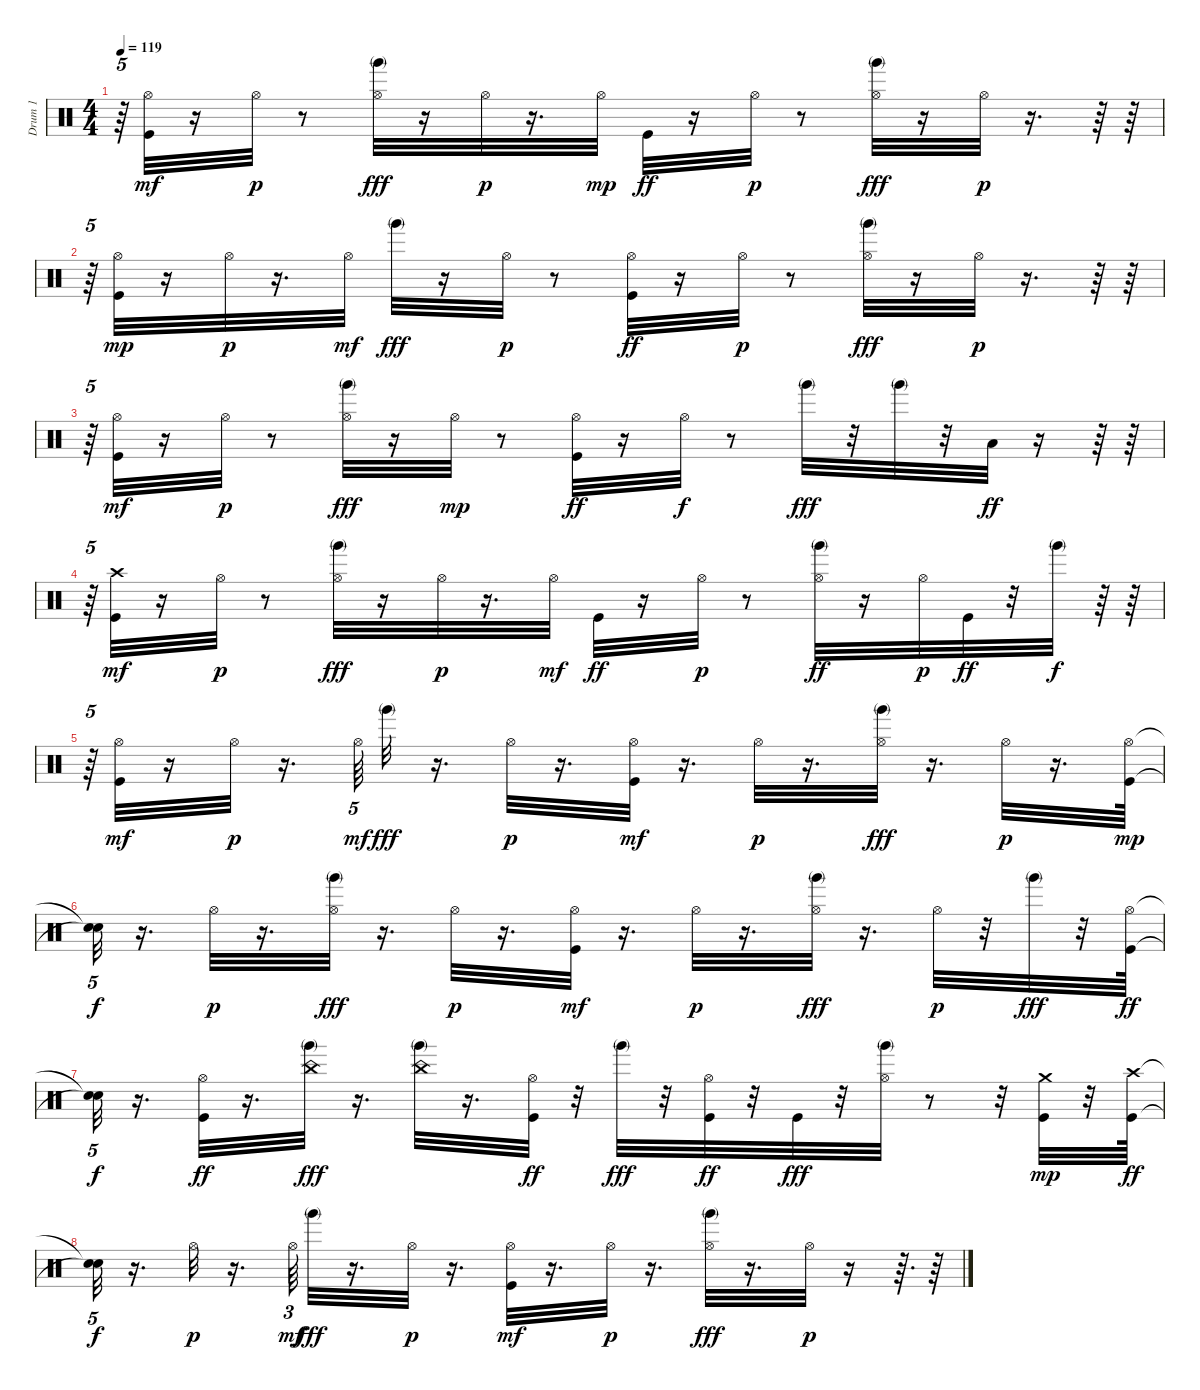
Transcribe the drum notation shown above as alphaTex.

\track ("Drum 1                          " "Drum 1    ") {instrument percussion}
\staff {score}
\articulation defaults
\ts (4 4)
\tempo 119
\clef neutral
\ks c
r.64{tu (5 4) dy p} ("Kick (hit)" "Hi-Hat (open)").32{dy mf} r.16 "Hi-Hat (open)".32{dy p} r.8 ("Hi-Hat (open)" "Hand (mute) 2").32{dy fff} r.16 "Hi-Hat (open)".32{dy p} r.16{d} "Hi-Hat (open)".32{dy mp} "Kick (hit)".32{dy ff} r.16 "Hi-Hat (open)".32{dy p} r.8 ("Hi-Hat (open)" "Hand (mute) 2").32{dy fff} r.16 "Hi-Hat (open)".32{dy p} r.16{d} r.64 r.64 |
r.64{tu (5 4)} ("Kick (hit)" "Hi-Hat (open)").32{dy mp} r.16 "Hi-Hat (open)".32{dy p} r.16{d} "Hi-Hat (open)".32{dy mf} "Hand (mute) 2".32{dy fff} r.16 "Hi-Hat (open)".32{dy p} r.8 ("Hi-Hat (open)" "Kick (hit)").32{dy ff} r.16 "Hi-Hat (open)".32{dy p} r.8 ("Hi-Hat (open)" "Hand (mute) 2").32{dy fff} r.16 "Hi-Hat (open)".32{dy p} r.16{d} r.64 r.64 |
r.64{tu (5 4)} ("Kick (hit)" "Hi-Hat (open)").32{dy mf} r.16 "Hi-Hat (open)".32{dy p} r.8 ("Hi-Hat (open)" "Hand (mute) 2").32{dy fff} r.16 "Hi-Hat (open)".32{dy mp} r.8 ("Hi-Hat (open)" "Kick (hit)").32{dy ff} r.16 "Hi-Hat (open)".32{dy f} r.8 "Hand (mute) 2".32{dy fff} r.32 "Hand (mute) 2".32 r.32 "Low Floor Tom (hit)".32{dy ff} r.16 r.64 r.64 |
r.64{tu (5 4)} ("Kick (hit)" "Crash high (hit)").32{dy mf} r.16 "Hi-Hat (open)".32{dy p} r.8 ("Hi-Hat (open)" "Hand (mute) 2").32{dy fff} r.16 "Hi-Hat (open)".32{dy p} r.16{d} "Hi-Hat (open)".32{dy mf} "Kick (hit)".32{dy ff} r.16 "Hi-Hat (open)".32{dy p} r.8 ("Hi-Hat (open)" "Hand (mute) 2").32{dy ff} r.16 "Hi-Hat (open)".32{dy p} "Kick (hit)".32{dy ff} r.32 "Hand (mute) 2".32{dy f} r.64 r.64 |
r.64{tu (5 4)} ("Kick (hit)" "Hi-Hat (open)").32{dy mf} r.16 "Hi-Hat (open)".32{dy p} r.16{d} "Hi-Hat (open)".64{tu (5 4) dy mf} "Hand (mute) 2".32{dy fff} r.16{d} "Hi-Hat (open)".32{dy p} r.16{d} ("Kick (hit)" "Hi-Hat (open)").32{dy mf} r.16{d} "Hi-Hat (open)".32{dy p} r.16{d} ("Hi-Hat (open)" "Hand (mute) 2").32{dy fff} r.16{d} "Hi-Hat (open)".32{dy p} r.16{d} ("Kick (hit)" "Hi-Hat (open)").64{dy mp} |
("Snare (hit)"{t} "Snare (hit)"{t}).32{tu (5 4) dy f} r.16{d} "Hi-Hat (open)".32{dy p} r.16{d} ("Hi-Hat (open)" "Hand (mute) 2").32{dy fff} r.16{d} "Hi-Hat (open)".32{dy p} r.16{d} ("Kick (hit)" "Hi-Hat (open)").32{dy mf} r.16{d} "Hi-Hat (open)".32{dy p} r.16{d} ("Hi-Hat (open)" "Hand (mute) 2").32{dy fff} r.16{d} "Hi-Hat (open)".32{dy p} r.32 "Hand (mute) 2".32{dy fff} r.32 ("Hi-Hat (open)" "Kick (hit)").64{dy ff} |
("Snare (hit)"{t} "Snare (hit)"{t}).32{tu (5 4) dy f} r.16{d} ("Hi-Hat (open)" "Kick (hit)").32{dy ff} r.16{d} ("China (hit)" "Hand (mute) 2").32{dy fff} r.16{d} ("China (hit)" "Hand (mute) 2").32 r.16{d} ("Hi-Hat (open)" "Kick (hit)").32{dy ff} r.32 "Hand (mute) 2".32{dy fff} r.32 ("Hi-Hat (open)" "Kick (hit)").32{dy ff} r.32 "Kick (hit)".32{dy fff} r.32 ("Hi-Hat (open)" "Hand (mute) 2").32 r.8 r.32 ("Crash medium (hit)" "Kick (hit)").32{dy mp} r.32 ("Crash high (hit)" "Kick (hit)").64{dy ff} |
("Snare (hit)"{t} "Snare (hit)"{t}).32{tu (5 4) dy f} r.16{d} "Hi-Hat (open)".32{dy p} r.16{d} "Hi-Hat (open)".64{tu (3 2) dy mf} "Hand (mute) 2".32{dy fff} r.16{d} "Hi-Hat (open)".32{dy p} r.16{d} ("Kick (hit)" "Hi-Hat (open)").32{dy mf} r.16{d} "Hi-Hat (open)".32{dy p} r.16{d} ("Hi-Hat (open)" "Hand (mute) 2").32{dy fff} r.16{d} "Hi-Hat (open)".32{dy p} r.16 r.64{d} r.64
